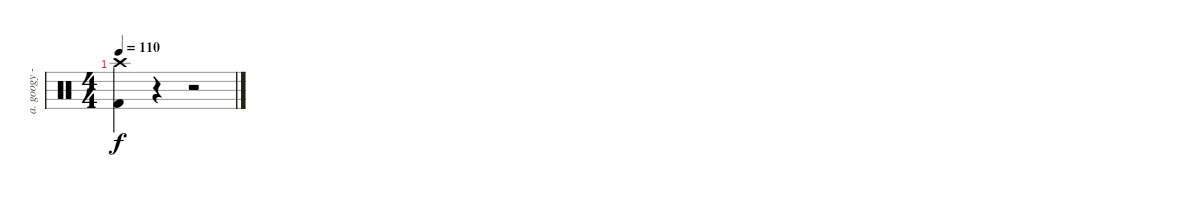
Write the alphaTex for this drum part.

\track ("a. googy - drums" "a. googy -") {instrument percussion}
\staff {score}
\articulation defaults
\ts (4 4)
\tempo 110
\clef neutral
\ks c
("Crash high (hit)" "Kick (hit) 2").4{dy f} r.4 r.2
